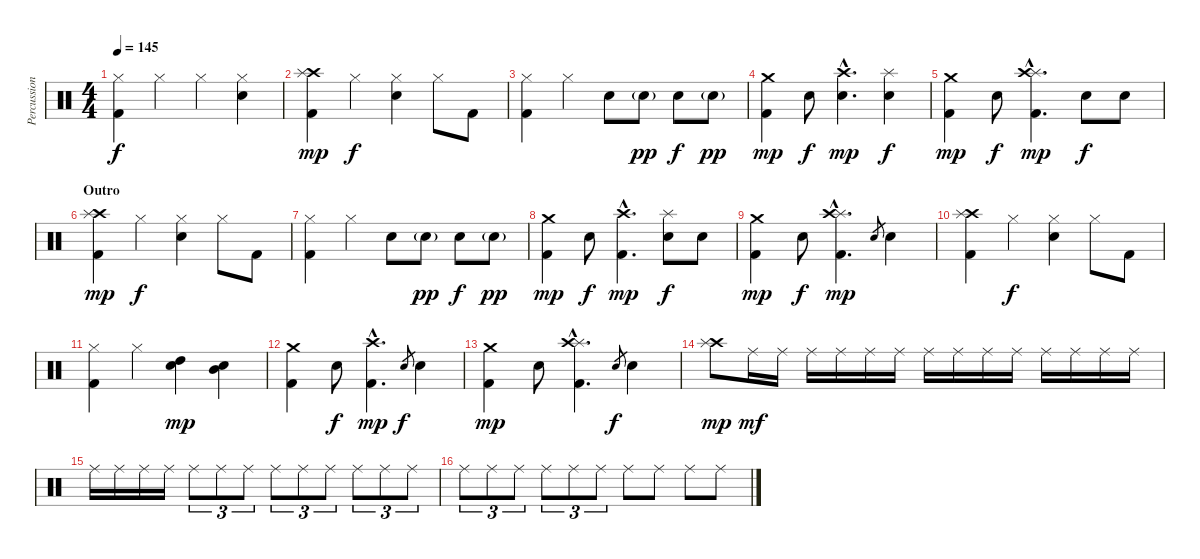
\track ("Percussion" "Percussion") {instrument percussion}
\staff {score}
\articulation defaults
\ts (4 4)
\tempo 145
\clef neutral
\ks c
("Hi-Hat (closed)" "Kick (hit) 2").4{dy f} "Hi-Hat (closed)".4 "Hi-Hat (closed)".4 ("Hi-Hat (closed)" "Electric Snare (hit)").4 |
("Crash high (hit)" "Splash (hit)" "Kick (hit) 2").4{dy mp} "Hi-Hat (closed)".4{dy f} ("Hi-Hat (closed)" "Electric Snare (hit)").4 "Hi-Hat (closed)".8 "Kick (hit) 2".8 |
("Hi-Hat (closed)" "Kick (hit) 2").4 "Hi-Hat (closed)".4 "Electric Snare (hit)".8 "Electric Snare (hit)"{g}.8{dy pp} "Electric Snare (hit)".8{dy f} "Electric Snare (hit)"{g}.8{dy pp} |
("Crash medium (hit)" "Kick (hit) 2").4{dy mp} "Electric Snare (hit)".8{dy f} ("Crash high (hit)"{hac} "Electric Snare (hit)"{hac}).4{d dy mp} ("Splash (hit)" "Electric Snare (hit)").4{dy f} |
("Crash medium (hit)" "Kick (hit) 2").4{dy mp} "Electric Snare (hit)".8{dy f} ("Splash (hit)"{hac} "Crash high (hit)"{hac} "Kick (hit) 2"{hac}).4{d dy mp} "Electric Snare (hit)".8{dy f} "Electric Snare (hit)".8 |
\section ("" "Outro")
("Crash high (hit)" "Splash (hit)" "Kick (hit) 2").4{dy mp} "Hi-Hat (closed)".4{dy f} ("Hi-Hat (closed)" "Electric Snare (hit)").4 "Hi-Hat (closed)".8 "Kick (hit) 2".8 |
("Hi-Hat (closed)" "Kick (hit) 2").4 "Hi-Hat (closed)".4 "Electric Snare (hit)".8 "Electric Snare (hit)"{g}.8{dy pp} "Electric Snare (hit)".8{dy f} "Electric Snare (hit)"{g}.8{dy pp} |
("Crash medium (hit)" "Kick (hit) 2").4{dy mp} "Electric Snare (hit)".8{dy f} ("Crash high (hit)"{hac} "Kick (hit) 2"{hac}).4{d dy mp} ("Splash (hit)" "Electric Snare (hit)").8{dy f} "Electric Snare (hit)".8 |
("Crash medium (hit)" "Kick (hit) 2").4{dy mp} "Electric Snare (hit)".8{dy f} ("Splash (hit)"{hac} "Crash high (hit)"{hac} "Kick (hit) 2"{hac}).4{d dy mp} "Snare (hit) 2".8{gr} "Snare (hit) 2".4 |
("Crash high (hit)" "Splash (hit)" "Kick (hit) 2").4 "Hi-Hat (closed)".4{dy f} ("Hi-Hat (closed)" "Electric Snare (hit)").4 "Hi-Hat (closed)".8 "Kick (hit) 2".8 |
("Hi-Hat (closed)" "Kick (hit) 2").4 "Hi-Hat (closed)".4 ("High Tom (hit)" "Electric Snare (hit)").4{dy mp} ("Mid Tom (hit)" "Electric Snare (hit)").4 |
("Crash medium (hit)" "Kick (hit) 2").4 "Electric Snare (hit)".8{dy f} ("Crash high (hit)"{hac} "Kick (hit) 2"{hac}).4{d dy mp} "Electric Snare (hit)".8{gr dy f} "Electric Snare (hit)".4 |
("Crash medium (hit)" "Kick (hit) 2").4{dy mp} "Electric Snare (hit)".8 ("Splash (hit)"{hac} "Crash high (hit)"{hac} "Kick (hit) 2"{hac}).4{d} "Electric Snare (hit)".8{gr dy f} "Electric Snare (hit)".4 |
("Crash high (hit)" "Splash (hit)").8{dy mp} "Ride (middle)".16{dy mf} "Ride (middle)".16 "Ride (middle)".16 "Ride (middle)".16 "Ride (middle)".16 "Ride (middle)".16 "Ride (middle)".16 "Ride (middle)".16 "Ride (middle)".16 "Ride (middle)".16 "Ride (middle)".16 "Ride (middle)".16 "Ride (middle)".16 "Ride (middle)".16 |
"Ride (middle)".16 "Ride (middle)".16 "Ride (middle)".16 "Ride (middle)".16 "Ride (middle)".8{tu (3 2)} "Ride (middle)".8{tu (3 2)} "Ride (middle)".8{tu (3 2)} "Ride (middle)".8{tu (3 2)} "Ride (middle)".8{tu (3 2)} "Ride (middle)".8{tu (3 2)} "Ride (middle)".8{tu (3 2)} "Ride (middle)".8{tu (3 2)} "Ride (middle)".8{tu (3 2)} |
"Ride (middle)".8{tu (3 2)} "Ride (middle)".8{tu (3 2)} "Ride (middle)".8{tu (3 2)} "Ride (middle)".8{tu (3 2)} "Ride (middle)".8{tu (3 2)} "Ride (middle)".8{tu (3 2)} "Ride (middle)".8 "Ride (middle)".8 "Ride (middle)".8 "Ride (middle)".8
